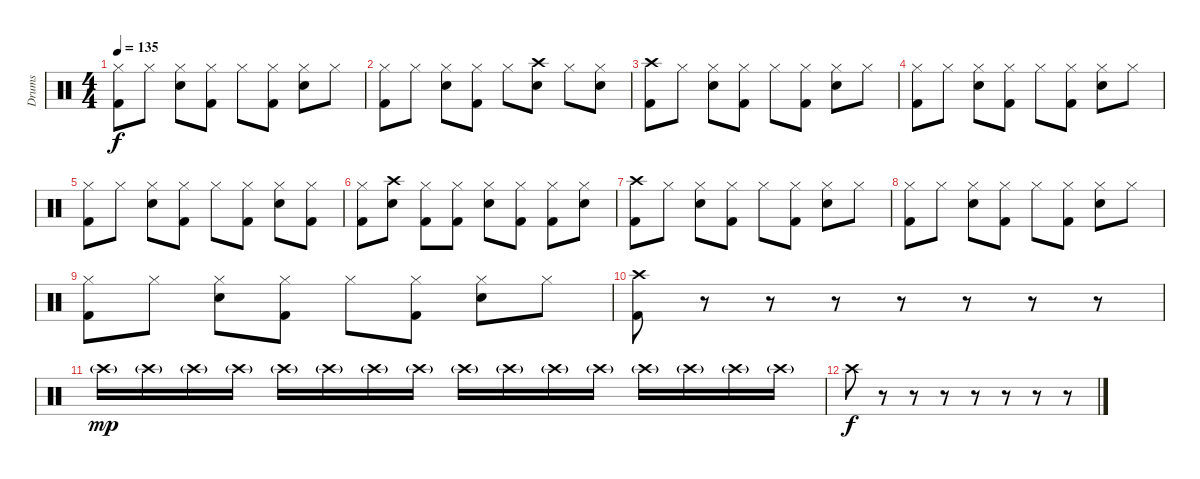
\track ("Drums" "Drums") {instrument percussion}
\staff {score}
\articulation defaults
\ts (4 4)
\tempo 135
\clef neutral
\ks c
("Kick (hit) 2" "Hi-Hat (closed)").8{dy f} "Hi-Hat (closed)".8 ("Snare (hit) 2" "Hi-Hat (closed)").8 ("Kick (hit) 2" "Hi-Hat (closed)").8 "Hi-Hat (closed)".8 ("Kick (hit) 2" "Hi-Hat (closed)").8 ("Snare (hit) 2" "Hi-Hat (closed)").8 "Hi-Hat (closed)".8 |
("Kick (hit) 2" "Hi-Hat (closed)").8 "Hi-Hat (closed)".8 ("Snare (hit) 2" "Hi-Hat (closed)").8 ("Kick (hit) 2" "Hi-Hat (closed)").8 "Hi-Hat (closed)".8 ("Crash high (hit)" "Snare (hit) 2").8 "Hi-Hat (closed)".8 ("Snare (hit) 2" "Hi-Hat (closed)").8 |
("Crash high (hit)" "Kick (hit) 2").8 "Hi-Hat (closed)".8 ("Snare (hit) 2" "Hi-Hat (closed)").8 ("Kick (hit) 2" "Hi-Hat (closed)").8 "Hi-Hat (closed)".8 ("Kick (hit) 2" "Hi-Hat (closed)").8 ("Snare (hit) 2" "Hi-Hat (closed)").8 "Hi-Hat (closed)".8 |
("Kick (hit) 2" "Hi-Hat (closed)").8 "Hi-Hat (closed)".8 ("Snare (hit) 2" "Hi-Hat (closed)").8 ("Kick (hit) 2" "Hi-Hat (closed)").8 "Hi-Hat (closed)".8 ("Kick (hit) 2" "Hi-Hat (closed)").8 ("Snare (hit) 2" "Hi-Hat (closed)").8 "Hi-Hat (closed)".8 |
("Kick (hit) 2" "Hi-Hat (closed)").8 "Hi-Hat (closed)".8 ("Snare (hit) 2" "Hi-Hat (closed)").8 ("Kick (hit) 2" "Hi-Hat (closed)").8 "Hi-Hat (closed)".8 ("Kick (hit) 2" "Hi-Hat (closed)").8 ("Snare (hit) 2" "Hi-Hat (closed)").8 ("Kick (hit) 2" "Hi-Hat (closed)").8 |
("Kick (hit) 2" "Hi-Hat (closed)").8 ("Crash high (hit)" "Snare (hit) 2").8 ("Kick (hit) 2" "Hi-Hat (closed)").8 ("Kick (hit) 2" "Hi-Hat (closed)").8 ("Snare (hit) 2" "Hi-Hat (closed)").8 ("Kick (hit) 2" "Hi-Hat (closed)").8 ("Kick (hit) 2" "Hi-Hat (closed)").8 ("Snare (hit) 2" "Hi-Hat (closed)").8 |
("Crash high (hit)" "Kick (hit) 2").8 "Hi-Hat (closed)".8 ("Snare (hit) 2" "Hi-Hat (closed)").8 ("Kick (hit) 2" "Hi-Hat (closed)").8 "Hi-Hat (closed)".8 ("Kick (hit) 2" "Hi-Hat (closed)").8 ("Snare (hit) 2" "Hi-Hat (closed)").8 "Hi-Hat (closed)".8 |
("Kick (hit) 2" "Hi-Hat (closed)").8 "Hi-Hat (closed)".8 ("Snare (hit) 2" "Hi-Hat (closed)").8 ("Kick (hit) 2" "Hi-Hat (closed)").8 "Hi-Hat (closed)".8 ("Kick (hit) 2" "Hi-Hat (closed)").8 ("Snare (hit) 2" "Hi-Hat (closed)").8 "Hi-Hat (closed)".8 |
("Kick (hit) 2" "Hi-Hat (closed)").8 "Hi-Hat (closed)".8 ("Snare (hit) 2" "Hi-Hat (closed)").8 ("Kick (hit) 2" "Hi-Hat (closed)").8 "Hi-Hat (closed)".8 ("Kick (hit) 2" "Hi-Hat (closed)").8 ("Snare (hit) 2" "Hi-Hat (closed)").8 "Hi-Hat (closed)".8 |
("Crash high (hit)" "Kick (hit) 2").8 r.8 r.8 r.8 r.8 r.8 r.8 r.8 |
"Crash high (hit)"{g}.16{dy mp} "Crash high (hit)"{g}.16 "Crash high (hit)"{g}.16 "Crash high (hit)"{g}.16 "Crash high (hit)"{g}.16 "Crash high (hit)"{g}.16 "Crash high (hit)"{g}.16 "Crash high (hit)"{g}.16 "Crash high (hit)"{g}.16 "Crash high (hit)"{g}.16 "Crash high (hit)"{g}.16 "Crash high (hit)"{g}.16 "Crash high (hit)"{g}.16 "Crash high (hit)"{g}.16 "Crash high (hit)"{g}.16 "Crash high (hit)"{g}.16 |
"Crash high (hit)".8{dy f} r.8 r.8 r.8 r.8 r.8 r.8 r.8
